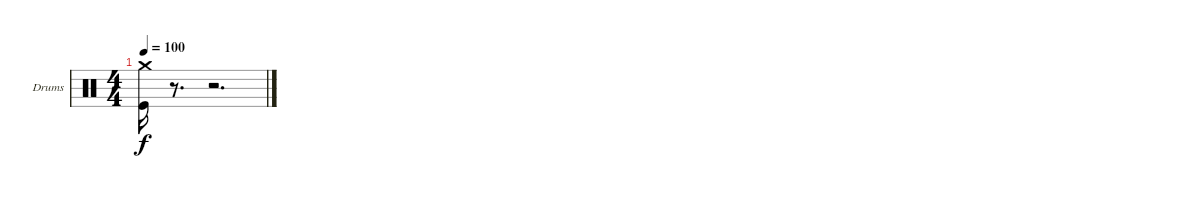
\bracketExtendMode groupsimilarinstruments
\firstSystemTrackNameOrientation horizontal
\otherSystemsTrackNameOrientation horizontal
\track ("Lars Ulrich (Drum)" "Drums") {instrument percussion}
\staff {score}
\articulation defaults
\ts (4 4)
\tempo 100
\clef neutral
\ks c
("Crash medium (hit)" "Kick (hit)").16{dy f} r.8{d} r.2{d}
